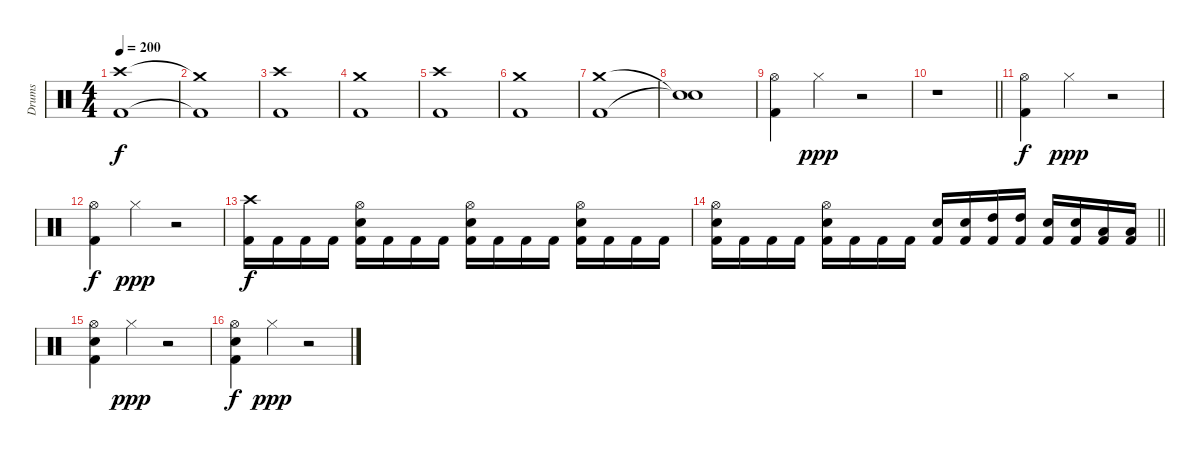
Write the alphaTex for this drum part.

\track ("Drums" "Drums") {instrument percussion}
\staff {score}
\articulation defaults
\ts (4 4)
\tempo 200
\clef neutral
\ks c
("Kick (hit) 2" "Crash high (hit)").1{dy f} |
("Kick (hit) 2"{t} "Crash medium (hit)"{t}).1 |
("Kick (hit) 2" "Crash high (hit)").1 |
("Kick (hit) 2" "Crash medium (hit)").1 |
("Kick (hit) 2" "Crash high (hit)").1 |
("Kick (hit) 2" "Crash medium (hit)").1 |
("Kick (hit) 2" "Crash medium (hit)").1 |
("Snare (hit)"{t} "Snare (hit)"{t}).1 |
("Kick (hit) 2" "Hi-Hat (open)").4 "Hi-Hat (closed)".4{dy ppp} r.2 |
\barLineRight lightlight
r.1 |
\section ("" "")
("Kick (hit) 2" "Hi-Hat (open)").4{dy f} "Hi-Hat (closed)".4{dy ppp} r.2 |
("Kick (hit) 2" "Hi-Hat (open)").4{dy f} "Hi-Hat (closed)".4{dy ppp} r.2 |
("Kick (hit) 2" "Crash high (hit)").16{dy f} "Kick (hit) 2".16 "Kick (hit) 2".16 "Kick (hit) 2".16 ("Kick (hit) 2" "Snare (hit) 2" "Hi-Hat (open)").16 "Kick (hit) 2".16 "Kick (hit) 2".16 "Kick (hit) 2".16 ("Kick (hit) 2" "Snare (hit) 2" "Hi-Hat (open)").16 "Kick (hit) 2".16 "Kick (hit) 2".16 "Kick (hit) 2".16 ("Kick (hit) 2" "Snare (hit) 2" "Hi-Hat (open)").16 "Kick (hit) 2".16 "Kick (hit) 2".16 "Kick (hit) 2".16 |
\barLineRight lightlight
("Kick (hit) 2" "Snare (hit) 2" "Hi-Hat (open)").16 "Kick (hit) 2".16 "Kick (hit) 2".16 "Kick (hit) 2".16 ("Kick (hit) 2" "Snare (hit) 2" "Hi-Hat (open)").16 "Kick (hit) 2".16 "Kick (hit) 2".16 "Kick (hit) 2".16 ("Kick (hit) 2" "Snare (hit) 2").16 ("Kick (hit) 2" "Snare (hit) 2").16 ("Kick (hit) 2" "High Tom (hit)").16 ("Kick (hit) 2" "High Tom (hit)").16 ("Kick (hit) 2" "Snare (hit) 2").16 ("Kick (hit) 2" "Snare (hit) 2").16 ("Kick (hit) 2" "Low Tom (hit)").16 ("Kick (hit) 2" "Low Tom (hit)").16 |
\section ("" "")
("Kick (hit) 2" "Snare (hit) 2" "Hi-Hat (open)").4 "Hi-Hat (closed)".4{dy ppp} r.2 |
("Kick (hit) 2" "Snare (hit) 2" "Hi-Hat (open)").4{dy f} "Hi-Hat (closed)".4{dy ppp} r.2
